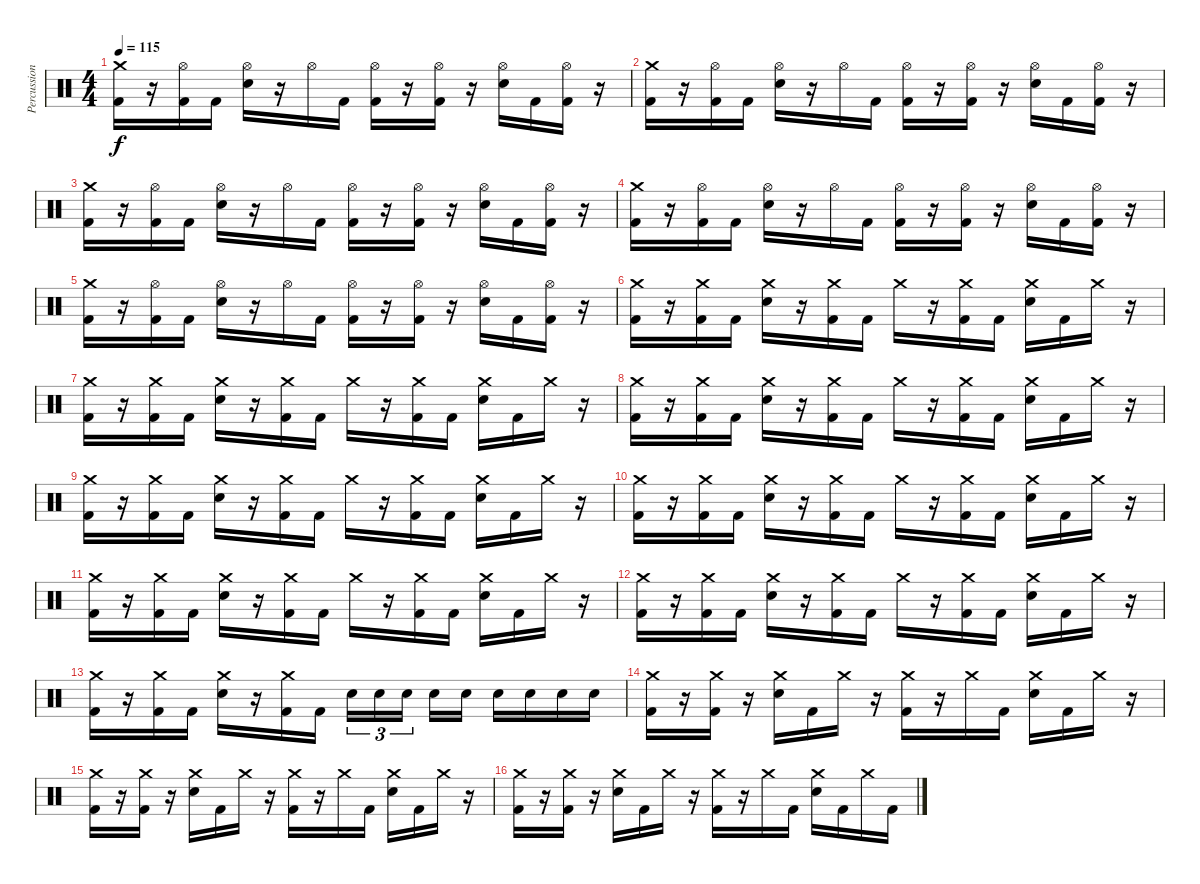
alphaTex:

\track ("Percussion" "Percussion") {instrument percussion}
\staff {score}
\articulation defaults
\ts (4 4)
\tempo 115
\clef neutral
\ks c
("Crash medium (hit)" "Kick (hit) 2").16{dy f} r.16 ("Hi-Hat (open)" "Kick (hit) 2").16 "Kick (hit) 2".16 ("Hi-Hat (open)" "Electric Snare (hit)").16 r.16 "Hi-Hat (open)".16 "Kick (hit) 2".16 ("Hi-Hat (open)" "Kick (hit) 2").16 r.16 ("Hi-Hat (open)" "Kick (hit) 2").16 r.16 ("Hi-Hat (open)" "Electric Snare (hit)").16 "Kick (hit) 2".16 ("Hi-Hat (open)" "Kick (hit) 2").16 r.16 |
("Crash medium (hit)" "Kick (hit) 2").16 r.16 ("Hi-Hat (open)" "Kick (hit) 2").16 "Kick (hit) 2".16 ("Hi-Hat (open)" "Electric Snare (hit)").16 r.16 "Hi-Hat (open)".16 "Kick (hit) 2".16 ("Hi-Hat (open)" "Kick (hit) 2").16 r.16 ("Hi-Hat (open)" "Kick (hit) 2").16 r.16 ("Hi-Hat (open)" "Electric Snare (hit)").16 "Kick (hit) 2".16 ("Hi-Hat (open)" "Kick (hit) 2").16 r.16 |
("Crash medium (hit)" "Kick (hit) 2").16 r.16 ("Hi-Hat (open)" "Kick (hit) 2").16 "Kick (hit) 2".16 ("Hi-Hat (open)" "Electric Snare (hit)").16 r.16 "Hi-Hat (open)".16 "Kick (hit) 2".16 ("Hi-Hat (open)" "Kick (hit) 2").16 r.16 ("Hi-Hat (open)" "Kick (hit) 2").16 r.16 ("Hi-Hat (open)" "Electric Snare (hit)").16 "Kick (hit) 2".16 ("Hi-Hat (open)" "Kick (hit) 2").16 r.16 |
("Crash medium (hit)" "Kick (hit) 2").16 r.16 ("Hi-Hat (open)" "Kick (hit) 2").16 "Kick (hit) 2".16 ("Hi-Hat (open)" "Electric Snare (hit)").16 r.16 "Hi-Hat (open)".16 "Kick (hit) 2".16 ("Hi-Hat (open)" "Kick (hit) 2").16 r.16 ("Hi-Hat (open)" "Kick (hit) 2").16 r.16 ("Hi-Hat (open)" "Electric Snare (hit)").16 "Kick (hit) 2".16 ("Hi-Hat (open)" "Kick (hit) 2").16 r.16 |
("Crash medium (hit)" "Kick (hit) 2").16 r.16 ("Hi-Hat (open)" "Kick (hit) 2").16 "Kick (hit) 2".16 ("Hi-Hat (open)" "Electric Snare (hit)").16 r.16 "Hi-Hat (open)".16 "Kick (hit) 2".16 ("Hi-Hat (open)" "Kick (hit) 2").16 r.16 ("Hi-Hat (open)" "Kick (hit) 2").16 r.16 ("Hi-Hat (open)" "Electric Snare (hit)").16 "Kick (hit) 2".16 ("Hi-Hat (open)" "Kick (hit) 2").16 r.16 |
("Crash medium (hit)" "Kick (hit) 2").16 r.16 ("Crash medium (hit)" "Kick (hit) 2").16 "Kick (hit) 2".16 ("Crash medium (hit)" "Electric Snare (hit)").16 r.16 ("Crash medium (hit)" "Kick (hit) 2").16 "Kick (hit) 2".16 "Crash medium (hit)".16 r.16 ("Crash medium (hit)" "Kick (hit) 2").16 "Kick (hit) 2".16 ("Crash medium (hit)" "Electric Snare (hit)").16 "Kick (hit) 2".16 "Crash medium (hit)".16 r.16 |
("Crash medium (hit)" "Kick (hit) 2").16 r.16 ("Crash medium (hit)" "Kick (hit) 2").16 "Kick (hit) 2".16 ("Crash medium (hit)" "Electric Snare (hit)").16 r.16 ("Crash medium (hit)" "Kick (hit) 2").16 "Kick (hit) 2".16 "Crash medium (hit)".16 r.16 ("Crash medium (hit)" "Kick (hit) 2").16 "Kick (hit) 2".16 ("Crash medium (hit)" "Electric Snare (hit)").16 "Kick (hit) 2".16 "Crash medium (hit)".16 r.16 |
("Crash medium (hit)" "Kick (hit) 2").16 r.16 ("Crash medium (hit)" "Kick (hit) 2").16 "Kick (hit) 2".16 ("Crash medium (hit)" "Electric Snare (hit)").16 r.16 ("Crash medium (hit)" "Kick (hit) 2").16 "Kick (hit) 2".16 "Crash medium (hit)".16 r.16 ("Crash medium (hit)" "Kick (hit) 2").16 "Kick (hit) 2".16 ("Crash medium (hit)" "Electric Snare (hit)").16 "Kick (hit) 2".16 "Crash medium (hit)".16 r.16 |
("Crash medium (hit)" "Kick (hit) 2").16 r.16 ("Crash medium (hit)" "Kick (hit) 2").16 "Kick (hit) 2".16 ("Crash medium (hit)" "Electric Snare (hit)").16 r.16 ("Crash medium (hit)" "Kick (hit) 2").16 "Kick (hit) 2".16 "Crash medium (hit)".16 r.16 ("Crash medium (hit)" "Kick (hit) 2").16 "Kick (hit) 2".16 ("Crash medium (hit)" "Electric Snare (hit)").16 "Kick (hit) 2".16 "Crash medium (hit)".16 r.16 |
("Crash medium (hit)" "Kick (hit) 2").16 r.16 ("Crash medium (hit)" "Kick (hit) 2").16 "Kick (hit) 2".16 ("Crash medium (hit)" "Electric Snare (hit)").16 r.16 ("Crash medium (hit)" "Kick (hit) 2").16 "Kick (hit) 2".16 "Crash medium (hit)".16 r.16 ("Crash medium (hit)" "Kick (hit) 2").16 "Kick (hit) 2".16 ("Crash medium (hit)" "Electric Snare (hit)").16 "Kick (hit) 2".16 "Crash medium (hit)".16 r.16 |
("Crash medium (hit)" "Kick (hit) 2").16 r.16 ("Crash medium (hit)" "Kick (hit) 2").16 "Kick (hit) 2".16 ("Crash medium (hit)" "Electric Snare (hit)").16 r.16 ("Crash medium (hit)" "Kick (hit) 2").16 "Kick (hit) 2".16 "Crash medium (hit)".16 r.16 ("Crash medium (hit)" "Kick (hit) 2").16 "Kick (hit) 2".16 ("Crash medium (hit)" "Electric Snare (hit)").16 "Kick (hit) 2".16 "Crash medium (hit)".16 r.16 |
("Crash medium (hit)" "Kick (hit) 2").16 r.16 ("Crash medium (hit)" "Kick (hit) 2").16 "Kick (hit) 2".16 ("Crash medium (hit)" "Electric Snare (hit)").16 r.16 ("Crash medium (hit)" "Kick (hit) 2").16 "Kick (hit) 2".16 "Crash medium (hit)".16 r.16 ("Crash medium (hit)" "Kick (hit) 2").16 "Kick (hit) 2".16 ("Crash medium (hit)" "Electric Snare (hit)").16 "Kick (hit) 2".16 "Crash medium (hit)".16 r.16 |
("Crash medium (hit)" "Kick (hit) 2").16 r.16 ("Crash medium (hit)" "Kick (hit) 2").16 "Kick (hit) 2".16 ("Crash medium (hit)" "Electric Snare (hit)").16 r.16 ("Crash medium (hit)" "Kick (hit) 2").16 "Kick (hit) 2".16 "Electric Snare (hit)".16{tu (3 2)} "Electric Snare (hit)".16{tu (3 2)} "Electric Snare (hit)".16{tu (3 2)} "Electric Snare (hit)".16 "Electric Snare (hit)".16 "Electric Snare (hit)".16 "Electric Snare (hit)".16 "Electric Snare (hit)".16 "Electric Snare (hit)".16 |
("Crash medium (hit)" "Kick (hit) 2").16 r.16 ("Crash medium (hit)" "Kick (hit) 2").16 r.16 ("Crash medium (hit)" "Electric Snare (hit)").16 "Kick (hit) 2".16 "Crash medium (hit)".16 r.16 ("Crash medium (hit)" "Kick (hit) 2").16 r.16 "Crash medium (hit)".16 "Kick (hit) 2".16 ("Crash medium (hit)" "Electric Snare (hit)").16 "Kick (hit) 2".16 "Crash medium (hit)".16 r.16 |
("Crash medium (hit)" "Kick (hit) 2").16 r.16 ("Crash medium (hit)" "Kick (hit) 2").16 r.16 ("Crash medium (hit)" "Electric Snare (hit)").16 "Kick (hit) 2".16 "Crash medium (hit)".16 r.16 ("Crash medium (hit)" "Kick (hit) 2").16 r.16 "Crash medium (hit)".16 "Kick (hit) 2".16 ("Crash medium (hit)" "Electric Snare (hit)").16 "Kick (hit) 2".16 "Crash medium (hit)".16 r.16 |
("Crash medium (hit)" "Kick (hit) 2").16 r.16 ("Crash medium (hit)" "Kick (hit) 2").16 r.16 ("Crash medium (hit)" "Electric Snare (hit)").16 "Kick (hit) 2".16 "Crash medium (hit)".16 r.16 ("Crash medium (hit)" "Kick (hit) 2").16 r.16 "Crash medium (hit)".16 "Kick (hit) 2".16 ("Crash medium (hit)" "Electric Snare (hit)").16 "Kick (hit) 2".16 "Crash medium (hit)".16 "Kick (hit) 2".16
